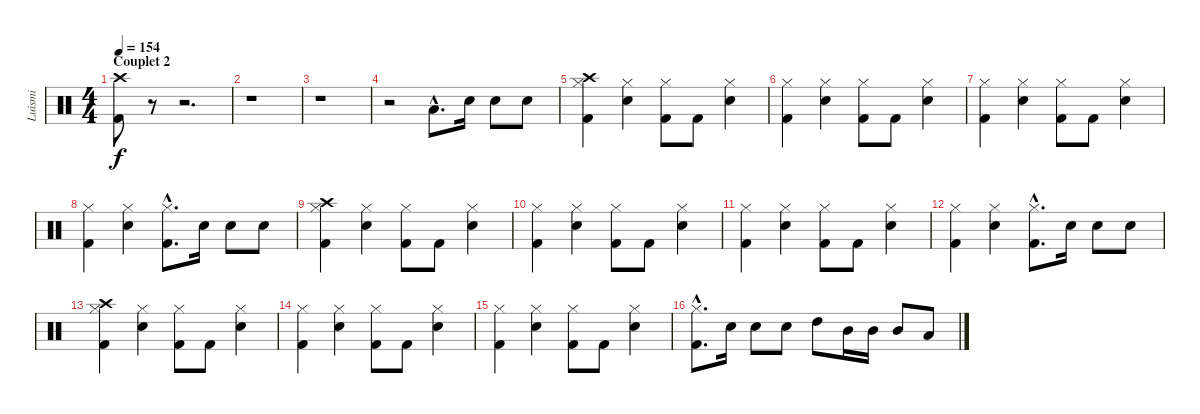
\track ("Luismi" "Luismi") {instrument percussion}
\staff {score}
\articulation defaults
\ts (4 4)
\section ("" "Couplet 2")
\tempo 154
\clef neutral
\ks c
("Kick (hit) 2" "Crash high (hit)").8{dy f} r.8 r.2{d} |
r.1 |
r.1 |
r.2 "Low Tom (hit)"{hac}.8{d} "Snare (hit) 2".16 "Snare (hit) 2".8 "Snare (hit) 2".8 |
("Kick (hit) 2" "Hi-Hat (closed)" "Crash high (hit)").4 ("Snare (hit) 2" "Hi-Hat (closed)").4 ("Kick (hit) 2" "Hi-Hat (closed)").8 "Kick (hit) 2".8 ("Snare (hit) 2" "Hi-Hat (closed)").4 |
("Kick (hit) 2" "Hi-Hat (closed)").4 ("Snare (hit) 2" "Hi-Hat (closed)").4 ("Kick (hit) 2" "Hi-Hat (closed)").8 "Kick (hit) 2".8 ("Snare (hit) 2" "Hi-Hat (closed)").4 |
("Kick (hit) 2" "Hi-Hat (closed)").4 ("Snare (hit) 2" "Hi-Hat (closed)").4 ("Kick (hit) 2" "Hi-Hat (closed)").8 "Kick (hit) 2".8 ("Snare (hit) 2" "Hi-Hat (closed)").4 |
("Kick (hit) 2" "Hi-Hat (closed)").4 ("Snare (hit) 2" "Hi-Hat (closed)").4 ("Kick (hit) 2"{hac} "Hi-Hat (closed)"{hac}).8{d} "Snare (hit) 2".16 "Snare (hit) 2".8 "Snare (hit) 2".8 |
("Kick (hit) 2" "Hi-Hat (closed)" "Crash high (hit)").4 ("Snare (hit) 2" "Hi-Hat (closed)").4 ("Kick (hit) 2" "Hi-Hat (closed)").8 "Kick (hit) 2".8 ("Snare (hit) 2" "Hi-Hat (closed)").4 |
("Kick (hit) 2" "Hi-Hat (closed)").4 ("Snare (hit) 2" "Hi-Hat (closed)").4 ("Kick (hit) 2" "Hi-Hat (closed)").8 "Kick (hit) 2".8 ("Snare (hit) 2" "Hi-Hat (closed)").4 |
("Kick (hit) 2" "Hi-Hat (closed)").4 ("Snare (hit) 2" "Hi-Hat (closed)").4 ("Kick (hit) 2" "Hi-Hat (closed)").8 "Kick (hit) 2".8 ("Snare (hit) 2" "Hi-Hat (closed)").4 |
("Kick (hit) 2" "Hi-Hat (closed)").4 ("Snare (hit) 2" "Hi-Hat (closed)").4 ("Kick (hit) 2"{hac} "Hi-Hat (closed)"{hac}).8{d} "Snare (hit) 2".16 "Snare (hit) 2".8 "Snare (hit) 2".8 |
("Kick (hit) 2" "Hi-Hat (closed)" "Crash high (hit)").4 ("Snare (hit) 2" "Hi-Hat (closed)").4 ("Kick (hit) 2" "Hi-Hat (closed)").8 "Kick (hit) 2".8 ("Snare (hit) 2" "Hi-Hat (closed)").4 |
("Kick (hit) 2" "Hi-Hat (closed)").4 ("Snare (hit) 2" "Hi-Hat (closed)").4 ("Kick (hit) 2" "Hi-Hat (closed)").8 "Kick (hit) 2".8 ("Snare (hit) 2" "Hi-Hat (closed)").4 |
("Kick (hit) 2" "Hi-Hat (closed)").4 ("Snare (hit) 2" "Hi-Hat (closed)").4 ("Kick (hit) 2" "Hi-Hat (closed)").8 "Kick (hit) 2".8 ("Snare (hit) 2" "Hi-Hat (closed)").4 |
("Kick (hit) 2"{hac} "Hi-Hat (closed)"{hac}).8{d} "Snare (hit) 2".16 "Snare (hit) 2".8 "Snare (hit) 2".8 "High Tom (hit)".8 "Mid Tom (hit)".16 "Mid Tom (hit)".16 "Mid Tom (hit)".8 "Low Tom (hit)".8
